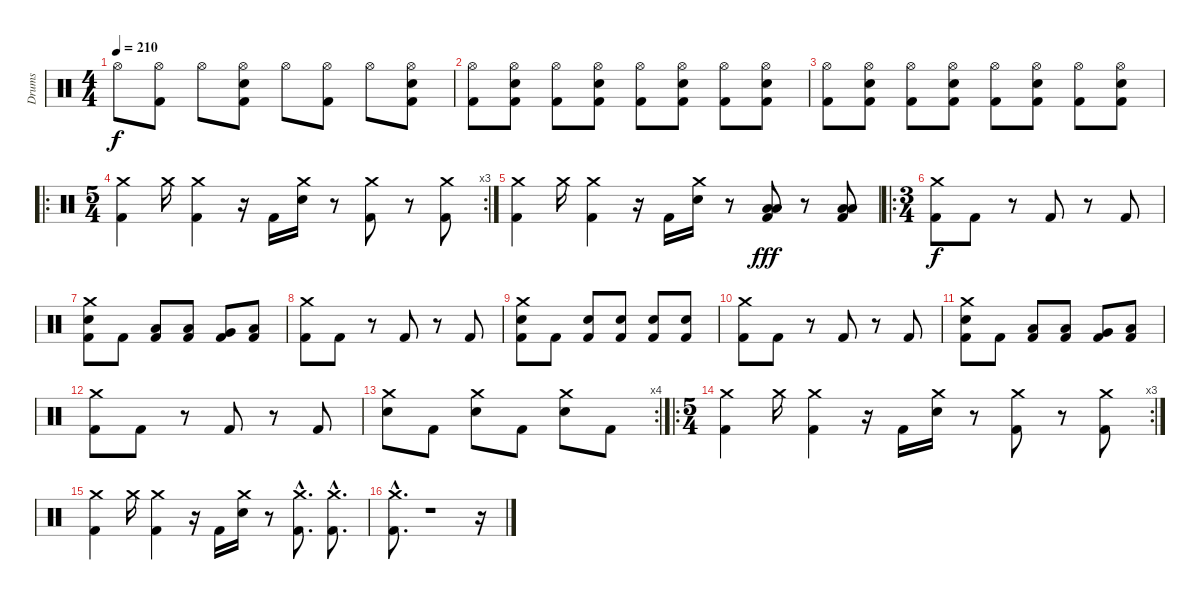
\track ("Drums" "Drums") {instrument percussion}
\staff {score}
\articulation defaults
\ts (4 4)
\tempo 210
\clef neutral
\ks c "Hi-Hat (open)".8{dy f}
("Kick (hit) 2" "Hi-Hat (open)").8 "Hi-Hat (open)".8 ("Snare (hit) 2" "Kick (hit) 2" "Hi-Hat (open)").8 "Hi-Hat (open)".8 ("Kick (hit) 2" "Hi-Hat (open)").8 "Hi-Hat (open)".8 ("Snare (hit) 2" "Kick (hit) 2" "Hi-Hat (open)").8 |
("Kick (hit) 2" "Hi-Hat (open)").8 ("Snare (hit) 2" "Kick (hit) 2" "Hi-Hat (open)").8 ("Kick (hit) 2" "Hi-Hat (open)").8 ("Snare (hit) 2" "Kick (hit) 2" "Hi-Hat (open)").8 ("Kick (hit) 2" "Hi-Hat (open)").8 ("Snare (hit) 2" "Kick (hit) 2" "Hi-Hat (open)").8 ("Kick (hit) 2" "Hi-Hat (open)").8 ("Snare (hit) 2" "Kick (hit) 2" "Hi-Hat (open)").8 |
("Kick (hit) 2" "Hi-Hat (open)").8 ("Snare (hit) 2" "Kick (hit) 2" "Hi-Hat (open)").8 ("Kick (hit) 2" "Hi-Hat (open)").8 ("Snare (hit) 2" "Kick (hit) 2" "Hi-Hat (open)").8 ("Kick (hit) 2" "Hi-Hat (open)").8 ("Snare (hit) 2" "Kick (hit) 2" "Hi-Hat (open)").8 ("Kick (hit) 2" "Hi-Hat (open)").8 ("Snare (hit) 2" "Kick (hit) 2" "Hi-Hat (open)").8 |
\ro
\rc 3
\ts (5 4)
("Crash medium (hit)" "Kick (hit) 2").4 "Crash medium (hit)".16 ("Crash medium (hit)" "Kick (hit) 2").4 r.16 "Kick (hit) 2".16 ("Snare (hit) 2" "Crash medium (hit)").16 r.8 ("Crash medium (hit)" "Kick (hit) 2").8 r.8 ("Crash medium (hit)" "Kick (hit) 2").8 |
("Crash medium (hit)" "Kick (hit) 2").4 "Crash medium (hit)".16 ("Crash medium (hit)" "Kick (hit) 2").4 r.16 "Kick (hit) 2".16 ("Snare (hit) 2" "Crash medium (hit)").16 r.8 ("Kick (hit) 2" "Low Tom (hit)" "Low Tom (hit)").8{dy fff} r.8 ("Kick (hit) 2" "Low Tom (hit)" "Low Tom (hit)").8 |
\ro
\ts (3 4)
("Crash medium (hit)" "Kick (hit) 2").8{dy f} "Kick (hit) 2".8 r.8 "Kick (hit) 2".8 r.8 "Kick (hit) 2".8 |
("Snare (hit) 2" "Kick (hit) 2" "Crash medium (hit)").8 "Kick (hit) 2".8 ("Low Tom (hit)" "Kick (hit) 2").8 ("Low Tom (hit)" "Kick (hit) 2").8 ("Very Low Tom (hit)" "Kick (hit) 2").8 ("Low Floor Tom (hit)" "Kick (hit) 2").8 |
("Kick (hit) 2" "Crash medium (hit)").8 "Kick (hit) 2".8 r.8 "Kick (hit) 2".8 r.8 "Kick (hit) 2".8 |
("Snare (hit) 2" "Kick (hit) 2" "Crash medium (hit)").8 "Kick (hit) 2".8 ("Snare (hit) 2" "Kick (hit) 2").8 ("Snare (hit) 2" "Kick (hit) 2").8 ("Snare (hit) 2" "Kick (hit) 2").8 ("Snare (hit) 2" "Kick (hit) 2").8 |
("Crash medium (hit)" "Kick (hit) 2").8 "Kick (hit) 2".8 r.8 "Kick (hit) 2".8 r.8 "Kick (hit) 2".8 |
("Snare (hit) 2" "Kick (hit) 2" "Crash medium (hit)").8 "Kick (hit) 2".8 ("Low Tom (hit)" "Kick (hit) 2").8 ("Low Tom (hit)" "Kick (hit) 2").8 ("Very Low Tom (hit)" "Kick (hit) 2").8 ("Low Floor Tom (hit)" "Kick (hit) 2").8 |
("Kick (hit) 2" "Crash medium (hit)").8 "Kick (hit) 2".8 r.8 "Kick (hit) 2".8 r.8 "Kick (hit) 2".8 |
\rc 4
("Snare (hit) 2" "Crash medium (hit)").8 "Kick (hit) 2".8 ("Snare (hit) 2" "Crash medium (hit)").8 "Kick (hit) 2".8 ("Snare (hit) 2" "Crash medium (hit)").8 "Kick (hit) 2".8 |
\ro
\rc 3
\ts (5 4)
("Crash medium (hit)" "Kick (hit) 2").4 "Crash medium (hit)".16 ("Crash medium (hit)" "Kick (hit) 2").4 r.16 "Kick (hit) 2".16 ("Snare (hit) 2" "Crash medium (hit)").16 r.8 ("Crash medium (hit)" "Kick (hit) 2").8 r.8 ("Crash medium (hit)" "Kick (hit) 2").8 |
("Crash medium (hit)" "Kick (hit) 2").4 "Crash medium (hit)".16 ("Crash medium (hit)" "Kick (hit) 2").4 r.16 "Kick (hit) 2".16 ("Snare (hit) 2" "Crash medium (hit)").16 r.8 ("Crash medium (hit)"{hac} "Kick (hit) 2"{hac}).8{d} ("Crash medium (hit)"{hac} "Kick (hit) 2"{hac}).8{d} |
("Crash medium (hit)"{hac} "Kick (hit) 2"{hac}).8{d} r.1 r.16
